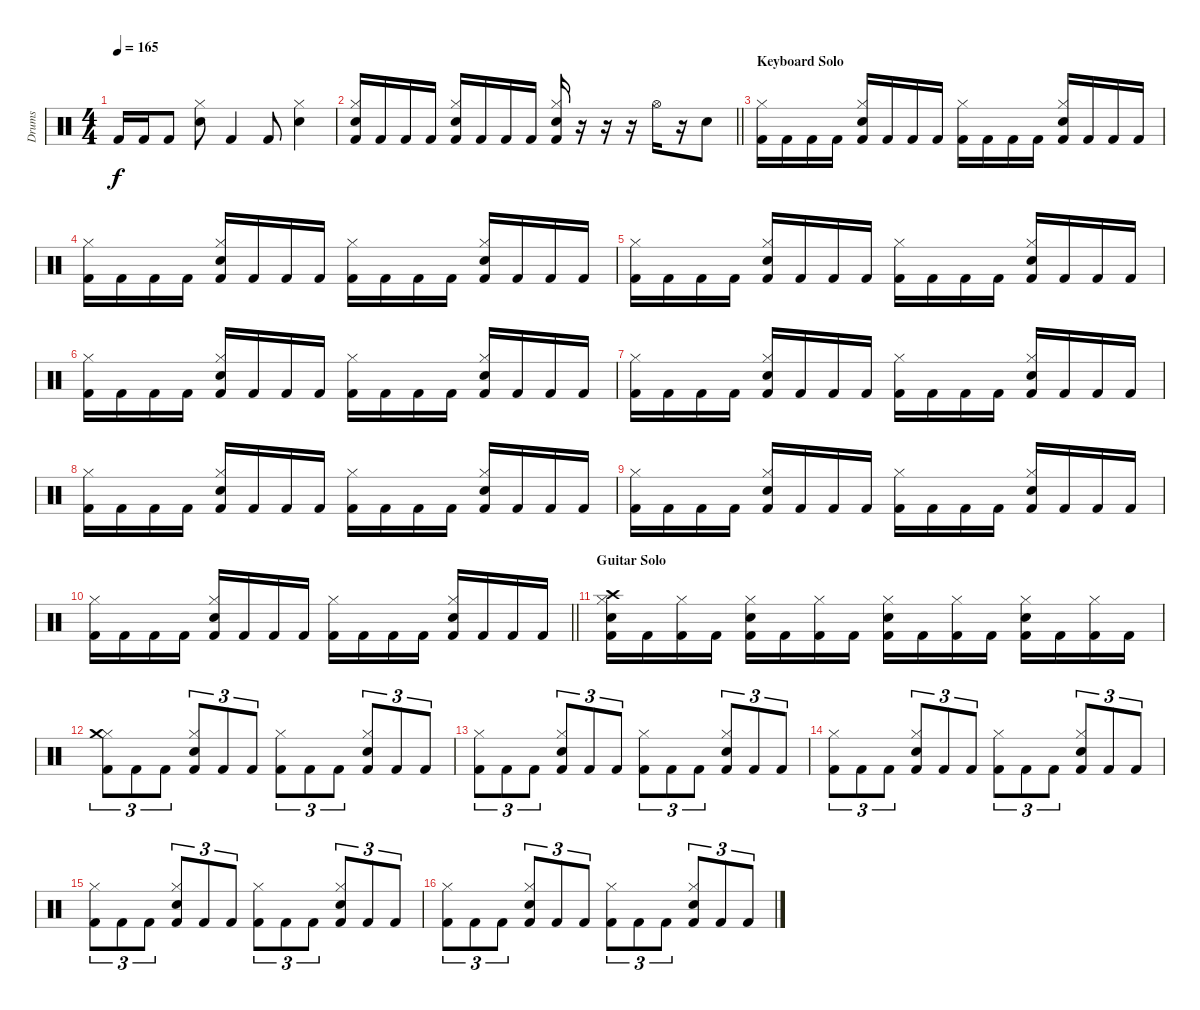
\track ("Drums" "Drums") {instrument percussion}
\staff {score}
\articulation defaults
\ts (4 4)
\tempo 165
\clef neutral
\ks c "Kick (hit) 2".16{dy f} "Kick (hit) 2".16 "Kick (hit) 2".8
("Hi-Hat (closed)" "Snare (hit) 2").8 "Kick (hit) 2".4 "Kick (hit) 2".8 ("Hi-Hat (closed)" "Snare (hit) 2").4 |
\barLineRight lightlight
("Hi-Hat (closed)" "Snare (hit) 2" "Kick (hit) 2").16 "Kick (hit) 2".16 "Kick (hit) 2".16 "Kick (hit) 2".16 ("Hi-Hat (closed)" "Snare (hit) 2" "Kick (hit) 2").16 "Kick (hit) 2".16 "Kick (hit) 2".16 "Kick (hit) 2".16 ("Hi-Hat (closed)" "Snare (hit) 2" "Kick (hit) 2").16 r.16 r.16 r.16 "Hi-Hat (open)".16 r.16 "Snare (hit) 2".8 |
\section ("" "Keyboard Solo")
("Hi-Hat (closed)" "Kick (hit) 2").16 "Kick (hit) 2".16 "Kick (hit) 2".16 "Kick (hit) 2".16 ("Hi-Hat (closed)" "Snare (hit) 2" "Kick (hit) 2").16 "Kick (hit) 2".16 "Kick (hit) 2".16 "Kick (hit) 2".16 ("Hi-Hat (closed)" "Kick (hit) 2").16 "Kick (hit) 2".16 "Kick (hit) 2".16 "Kick (hit) 2".16 ("Hi-Hat (closed)" "Snare (hit) 2" "Kick (hit) 2").16 "Kick (hit) 2".16 "Kick (hit) 2".16 "Kick (hit) 2".16 |
("Hi-Hat (closed)" "Kick (hit) 2").16 "Kick (hit) 2".16 "Kick (hit) 2".16 "Kick (hit) 2".16 ("Hi-Hat (closed)" "Snare (hit) 2" "Kick (hit) 2").16 "Kick (hit) 2".16 "Kick (hit) 2".16 "Kick (hit) 2".16 ("Hi-Hat (closed)" "Kick (hit) 2").16 "Kick (hit) 2".16 "Kick (hit) 2".16 "Kick (hit) 2".16 ("Hi-Hat (closed)" "Snare (hit) 2" "Kick (hit) 2").16 "Kick (hit) 2".16 "Kick (hit) 2".16 "Kick (hit) 2".16 |
("Hi-Hat (closed)" "Kick (hit) 2").16 "Kick (hit) 2".16 "Kick (hit) 2".16 "Kick (hit) 2".16 ("Hi-Hat (closed)" "Snare (hit) 2" "Kick (hit) 2").16 "Kick (hit) 2".16 "Kick (hit) 2".16 "Kick (hit) 2".16 ("Hi-Hat (closed)" "Kick (hit) 2").16 "Kick (hit) 2".16 "Kick (hit) 2".16 "Kick (hit) 2".16 ("Hi-Hat (closed)" "Snare (hit) 2" "Kick (hit) 2").16 "Kick (hit) 2".16 "Kick (hit) 2".16 "Kick (hit) 2".16 |
("Hi-Hat (closed)" "Kick (hit) 2").16 "Kick (hit) 2".16 "Kick (hit) 2".16 "Kick (hit) 2".16 ("Hi-Hat (closed)" "Snare (hit) 2" "Kick (hit) 2").16 "Kick (hit) 2".16 "Kick (hit) 2".16 "Kick (hit) 2".16 ("Hi-Hat (closed)" "Kick (hit) 2").16 "Kick (hit) 2".16 "Kick (hit) 2".16 "Kick (hit) 2".16 ("Hi-Hat (closed)" "Snare (hit) 2" "Kick (hit) 2").16 "Kick (hit) 2".16 "Kick (hit) 2".16 "Kick (hit) 2".16 |
("Hi-Hat (closed)" "Kick (hit) 2").16 "Kick (hit) 2".16 "Kick (hit) 2".16 "Kick (hit) 2".16 ("Hi-Hat (closed)" "Snare (hit) 2" "Kick (hit) 2").16 "Kick (hit) 2".16 "Kick (hit) 2".16 "Kick (hit) 2".16 ("Hi-Hat (closed)" "Kick (hit) 2").16 "Kick (hit) 2".16 "Kick (hit) 2".16 "Kick (hit) 2".16 ("Hi-Hat (closed)" "Snare (hit) 2" "Kick (hit) 2").16 "Kick (hit) 2".16 "Kick (hit) 2".16 "Kick (hit) 2".16 |
("Hi-Hat (closed)" "Kick (hit) 2").16 "Kick (hit) 2".16 "Kick (hit) 2".16 "Kick (hit) 2".16 ("Hi-Hat (closed)" "Snare (hit) 2" "Kick (hit) 2").16 "Kick (hit) 2".16 "Kick (hit) 2".16 "Kick (hit) 2".16 ("Hi-Hat (closed)" "Kick (hit) 2").16 "Kick (hit) 2".16 "Kick (hit) 2".16 "Kick (hit) 2".16 ("Hi-Hat (closed)" "Snare (hit) 2" "Kick (hit) 2").16 "Kick (hit) 2".16 "Kick (hit) 2".16 "Kick (hit) 2".16 |
("Hi-Hat (closed)" "Kick (hit) 2").16 "Kick (hit) 2".16 "Kick (hit) 2".16 "Kick (hit) 2".16 ("Hi-Hat (closed)" "Snare (hit) 2" "Kick (hit) 2").16 "Kick (hit) 2".16 "Kick (hit) 2".16 "Kick (hit) 2".16 ("Hi-Hat (closed)" "Kick (hit) 2").16 "Kick (hit) 2".16 "Kick (hit) 2".16 "Kick (hit) 2".16 ("Hi-Hat (closed)" "Snare (hit) 2" "Kick (hit) 2").16 "Kick (hit) 2".16 "Kick (hit) 2".16 "Kick (hit) 2".16 |
\barLineRight lightlight
("Hi-Hat (closed)" "Kick (hit) 2").16 "Kick (hit) 2".16 "Kick (hit) 2".16 "Kick (hit) 2".16 ("Hi-Hat (closed)" "Snare (hit) 2" "Kick (hit) 2").16 "Kick (hit) 2".16 "Kick (hit) 2".16 "Kick (hit) 2".16 ("Hi-Hat (closed)" "Kick (hit) 2").16 "Kick (hit) 2".16 "Kick (hit) 2".16 "Kick (hit) 2".16 ("Hi-Hat (closed)" "Snare (hit) 2" "Kick (hit) 2").16 "Kick (hit) 2".16 "Kick (hit) 2".16 "Kick (hit) 2".16 |
\section ("" "Guitar Solo")
("Hi-Hat (closed)" "Snare (hit) 2" "Crash high (hit)" "Kick (hit) 2").16 "Kick (hit) 2".16 ("Hi-Hat (closed)" "Kick (hit) 2").16 "Kick (hit) 2".16 ("Hi-Hat (closed)" "Snare (hit) 2" "Kick (hit) 2").16 "Kick (hit) 2".16 ("Hi-Hat (closed)" "Kick (hit) 2").16 "Kick (hit) 2".16 ("Hi-Hat (closed)" "Snare (hit) 2" "Kick (hit) 2").16 "Kick (hit) 2".16 ("Hi-Hat (closed)" "Kick (hit) 2").16 "Kick (hit) 2".16 ("Hi-Hat (closed)" "Snare (hit) 2" "Kick (hit) 2").16 "Kick (hit) 2".16 ("Hi-Hat (closed)" "Kick (hit) 2").16 "Kick (hit) 2".16 |
("Hi-Hat (closed)" "Crash medium (hit)" "Kick (hit) 2").8{tu (3 2)} "Kick (hit) 2".8{tu (3 2)} "Kick (hit) 2".8{tu (3 2)} ("Hi-Hat (closed)" "Snare (hit) 2" "Kick (hit) 2").8{tu (3 2)} "Kick (hit) 2".8{tu (3 2)} "Kick (hit) 2".8{tu (3 2)} ("Hi-Hat (closed)" "Kick (hit) 2").8{tu (3 2)} "Kick (hit) 2".8{tu (3 2)} "Kick (hit) 2".8{tu (3 2)} ("Hi-Hat (closed)" "Snare (hit) 2" "Kick (hit) 2").8{tu (3 2)} "Kick (hit) 2".8{tu (3 2)} "Kick (hit) 2".8{tu (3 2)} |
("Hi-Hat (closed)" "Kick (hit) 2").8{tu (3 2)} "Kick (hit) 2".8{tu (3 2)} "Kick (hit) 2".8{tu (3 2)} ("Hi-Hat (closed)" "Snare (hit) 2" "Kick (hit) 2").8{tu (3 2)} "Kick (hit) 2".8{tu (3 2)} "Kick (hit) 2".8{tu (3 2)} ("Hi-Hat (closed)" "Kick (hit) 2").8{tu (3 2)} "Kick (hit) 2".8{tu (3 2)} "Kick (hit) 2".8{tu (3 2)} ("Hi-Hat (closed)" "Snare (hit) 2" "Kick (hit) 2").8{tu (3 2)} "Kick (hit) 2".8{tu (3 2)} "Kick (hit) 2".8{tu (3 2)} |
("Hi-Hat (closed)" "Kick (hit) 2").8{tu (3 2)} "Kick (hit) 2".8{tu (3 2)} "Kick (hit) 2".8{tu (3 2)} ("Hi-Hat (closed)" "Snare (hit) 2" "Kick (hit) 2").8{tu (3 2)} "Kick (hit) 2".8{tu (3 2)} "Kick (hit) 2".8{tu (3 2)} ("Hi-Hat (closed)" "Kick (hit) 2").8{tu (3 2)} "Kick (hit) 2".8{tu (3 2)} "Kick (hit) 2".8{tu (3 2)} ("Hi-Hat (closed)" "Snare (hit) 2" "Kick (hit) 2").8{tu (3 2)} "Kick (hit) 2".8{tu (3 2)} "Kick (hit) 2".8{tu (3 2)} |
("Hi-Hat (closed)" "Kick (hit) 2").8{tu (3 2)} "Kick (hit) 2".8{tu (3 2)} "Kick (hit) 2".8{tu (3 2)} ("Hi-Hat (closed)" "Snare (hit) 2" "Kick (hit) 2").8{tu (3 2)} "Kick (hit) 2".8{tu (3 2)} "Kick (hit) 2".8{tu (3 2)} ("Hi-Hat (closed)" "Kick (hit) 2").8{tu (3 2)} "Kick (hit) 2".8{tu (3 2)} "Kick (hit) 2".8{tu (3 2)} ("Hi-Hat (closed)" "Snare (hit) 2" "Kick (hit) 2").8{tu (3 2)} "Kick (hit) 2".8{tu (3 2)} "Kick (hit) 2".8{tu (3 2)} |
("Hi-Hat (closed)" "Kick (hit) 2").8{tu (3 2)} "Kick (hit) 2".8{tu (3 2)} "Kick (hit) 2".8{tu (3 2)} ("Hi-Hat (closed)" "Snare (hit) 2" "Kick (hit) 2").8{tu (3 2)} "Kick (hit) 2".8{tu (3 2)} "Kick (hit) 2".8{tu (3 2)} ("Hi-Hat (closed)" "Kick (hit) 2").8{tu (3 2)} "Kick (hit) 2".8{tu (3 2)} "Kick (hit) 2".8{tu (3 2)} ("Hi-Hat (closed)" "Snare (hit) 2" "Kick (hit) 2").8{tu (3 2)} "Kick (hit) 2".8{tu (3 2)} "Kick (hit) 2".8{tu (3 2)}
